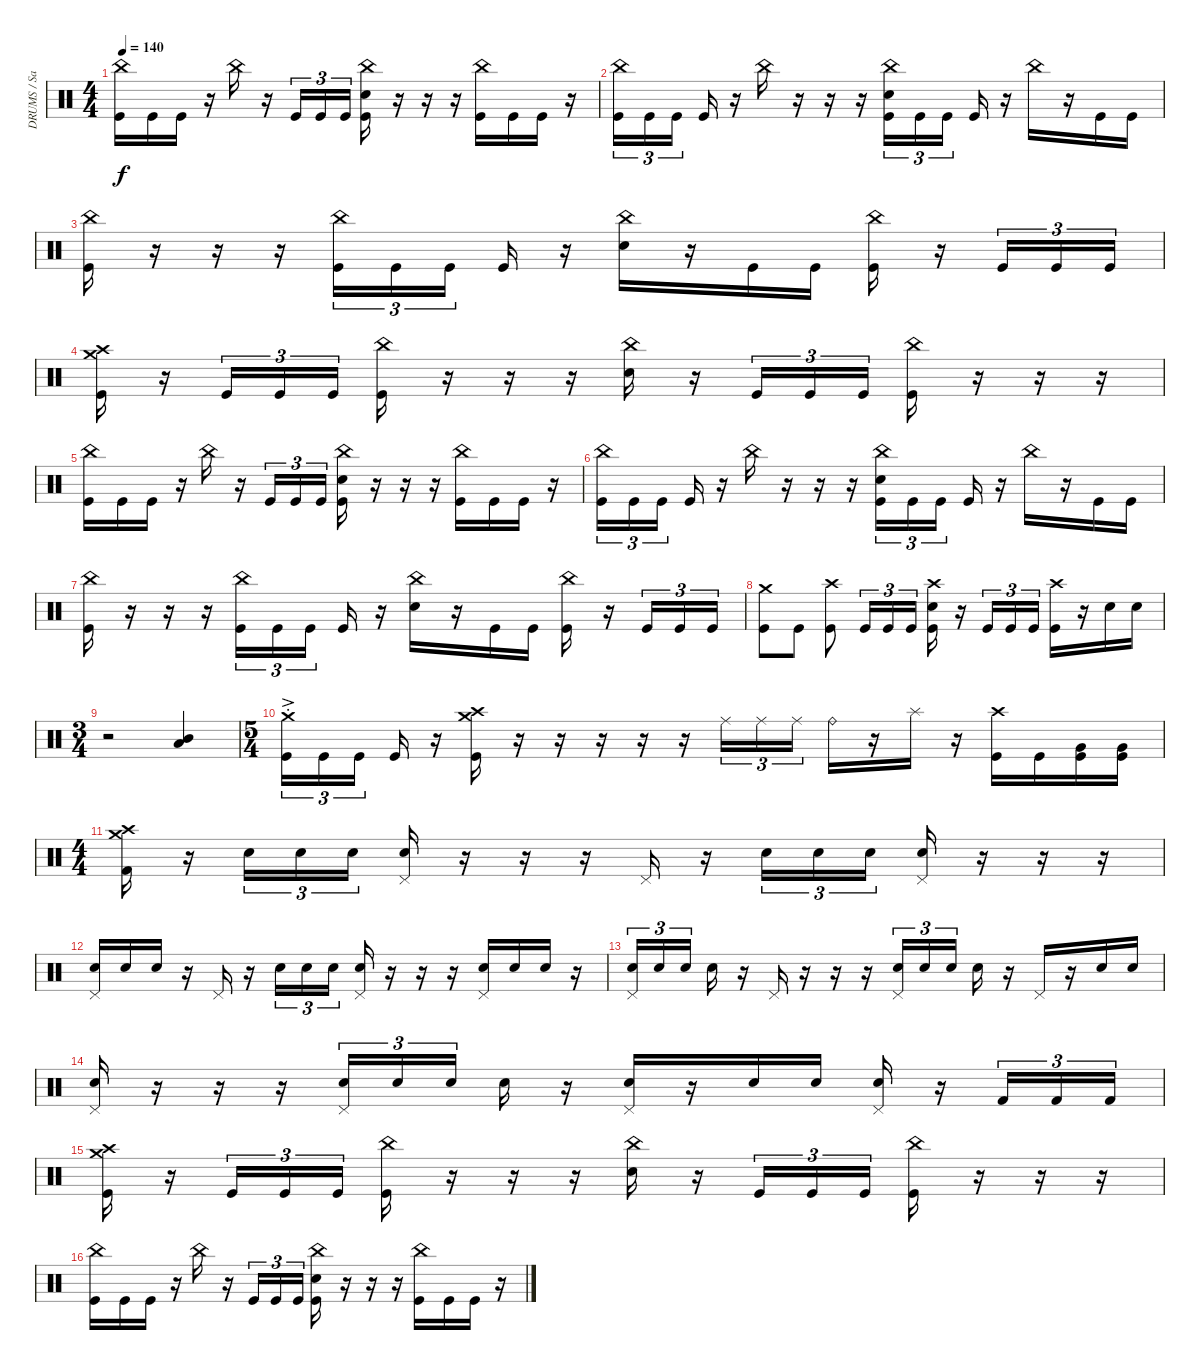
\track ("DRUMS / Sasha" "DRUMS / Sa") {instrument percussion}
\staff {score}
\articulation defaults
\ts (4 4)
\tempo 140
\clef neutral
\ks c
("China (hit)" "Kick (hit)").16{dy f} "Kick (hit)".16 "Kick (hit)".16 r.16 "China (hit)".16 r.16 "Kick (hit)".16{tu (3 2)} "Kick (hit)".16{tu (3 2)} "Kick (hit)".16{tu (3 2)} ("China (hit)" "Kick (hit)" "Snare (hit) 2").16 r.16 r.16 r.16 ("China (hit)" "Kick (hit)").16 "Kick (hit)".16 "Kick (hit)".16 r.16 |
("Kick (hit)" "China (hit)").16{tu (3 2)} "Kick (hit)".16{tu (3 2)} "Kick (hit)".16{tu (3 2) beam splitsecondary} "Kick (hit)".16 r.16 "China (hit)".16 r.16 r.16 r.16 ("Kick (hit)" "China (hit)" "Snare (hit) 2").16{tu (3 2)} "Kick (hit)".16{tu (3 2)} "Kick (hit)".16{tu (3 2) beam splitsecondary} "Kick (hit)".16 r.16 "China (hit)".16 r.16 "Kick (hit)".16 "Kick (hit)".16 |
("Kick (hit)" "China (hit)").16 r.16 r.16 r.16 ("Kick (hit)" "China (hit)").16{tu (3 2)} "Kick (hit)".16{tu (3 2)} "Kick (hit)".16{tu (3 2) beam splitsecondary} "Kick (hit)".16 r.16 ("China (hit)" "Snare (hit) 2").16 r.16 "Kick (hit)".16 "Kick (hit)".16 ("Kick (hit)" "China (hit)").16 r.16 "Kick (hit)".16{tu (3 2)} "Kick (hit)".16{tu (3 2)} "Kick (hit)".16{tu (3 2)} |
("Kick (hit)" "Crash medium (hit)" "Crash high (hit)").16 r.16 "Kick (hit)".16{tu (3 2)} "Kick (hit)".16{tu (3 2)} "Kick (hit)".16{tu (3 2)} ("China (hit)" "Kick (hit)").16 r.16 r.16 r.16 ("China (hit)" "Snare (hit) 2").16 r.16 "Kick (hit)".16{tu (3 2)} "Kick (hit)".16{tu (3 2)} "Kick (hit)".16{tu (3 2)} ("China (hit)" "Kick (hit)").16 r.16 r.16 r.16 |
("China (hit)" "Kick (hit)").16 "Kick (hit)".16 "Kick (hit)".16 r.16 "China (hit)".16 r.16 "Kick (hit)".16{tu (3 2)} "Kick (hit)".16{tu (3 2)} "Kick (hit)".16{tu (3 2)} ("China (hit)" "Kick (hit)" "Snare (hit) 2").16 r.16 r.16 r.16 ("China (hit)" "Kick (hit)").16 "Kick (hit)".16 "Kick (hit)".16 r.16 |
("Kick (hit)" "China (hit)").16{tu (3 2)} "Kick (hit)".16{tu (3 2)} "Kick (hit)".16{tu (3 2) beam splitsecondary} "Kick (hit)".16 r.16 "China (hit)".16 r.16 r.16 r.16 ("Kick (hit)" "China (hit)" "Snare (hit) 2").16{tu (3 2)} "Kick (hit)".16{tu (3 2)} "Kick (hit)".16{tu (3 2) beam splitsecondary} "Kick (hit)".16 r.16 "China (hit)".16 r.16 "Kick (hit)".16 "Kick (hit)".16 |
("Kick (hit)" "China (hit)").16 r.16 r.16 r.16 ("Kick (hit)" "China (hit)").16{tu (3 2)} "Kick (hit)".16{tu (3 2)} "Kick (hit)".16{tu (3 2) beam splitsecondary} "Kick (hit)".16 r.16 ("China (hit)" "Snare (hit) 2").16 r.16 "Kick (hit)".16 "Kick (hit)".16 ("Kick (hit)" "China (hit)").16 r.16 "Kick (hit)".16{tu (3 2)} "Kick (hit)".16{tu (3 2)} "Kick (hit)".16{tu (3 2)} |
("Kick (hit)" "Crash medium (hit)").8 "Kick (hit)".8 ("Kick (hit)" "Crash high (hit)").8 "Kick (hit)".16{tu (3 2)} "Kick (hit)".16{tu (3 2)} "Kick (hit)".16{tu (3 2)} ("Kick (hit)" "Crash high (hit)" "Snare (hit) 2").16 r.16 "Kick (hit)".16{tu (3 2)} "Kick (hit)".16{tu (3 2)} "Kick (hit)".16{tu (3 2)} ("Kick (hit)" "Crash high (hit)").16 r.16 "Snare (hit) 2".16 "Snare (hit) 2".16 |
\ts (3 4)
r.2 ("Low Tom (hit)" "Mid Tom (hit)").4 |
\ts (5 4)
("Kick (hit)" "Crash medium (hit)"{ac st}).16{tu (3 2)} "Kick (hit)".16{tu (3 2)} "Kick (hit)".16{tu (3 2) beam splitsecondary} "Kick (hit)".16 r.16 ("Kick (hit)" "Crash high (hit)" "Crash medium (hit)").16 r.16 r.16 r.16 r.16 r.16 "Ride (middle)".16{tu (3 2)} "Ride (middle)".16{tu (3 2)} "Ride (middle)".16{tu (3 2)} "Ride (bell)".16 r.16 "Splash (hit)".16 r.16 ("Crash high (hit)" "Kick (hit)").16 "Kick (hit)".16 ("Kick (hit)" "Very Low Tom (hit)").16 ("Kick (hit)" "Very Low Tom (hit)").16 |
\ts (4 4)
("Crash medium (hit)" "Crash high (hit)" "Kick (hit) 2").16 r.16 "Electric Snare (hit)".16{tu (3 2)} "Electric Snare (hit)".16{tu (3 2)} "Electric Snare (hit)".16{tu (3 2)} ("Electric Snare (hit)" "Pedal Hi-Hat (hit)").16 r.16 r.16 r.16 "Pedal Hi-Hat (hit)".16 r.16 "Electric Snare (hit)".16{tu (3 2)} "Electric Snare (hit)".16{tu (3 2)} "Electric Snare (hit)".16{tu (3 2)} ("Electric Snare (hit)" "Pedal Hi-Hat (hit)").16 r.16 r.16 r.16 |
("Electric Snare (hit)" "Pedal Hi-Hat (hit)").16 "Electric Snare (hit)".16 "Electric Snare (hit)".16 r.16 "Pedal Hi-Hat (hit)".16 r.16 "Electric Snare (hit)".16{tu (3 2)} "Electric Snare (hit)".16{tu (3 2)} "Electric Snare (hit)".16{tu (3 2)} ("Electric Snare (hit)" "Pedal Hi-Hat (hit)").16 r.16 r.16 r.16 ("Electric Snare (hit)" "Pedal Hi-Hat (hit)").16 "Electric Snare (hit)".16 "Electric Snare (hit)".16 r.16 |
("Electric Snare (hit)" "Pedal Hi-Hat (hit)").16{tu (3 2)} "Electric Snare (hit)".16{tu (3 2)} "Electric Snare (hit)".16{tu (3 2) beam splitsecondary} "Electric Snare (hit)".16 r.16 "Pedal Hi-Hat (hit)".16 r.16 r.16 r.16 ("Electric Snare (hit)" "Pedal Hi-Hat (hit)").16{tu (3 2)} "Electric Snare (hit)".16{tu (3 2)} "Electric Snare (hit)".16{tu (3 2) beam splitsecondary} "Electric Snare (hit)".16 r.16 "Pedal Hi-Hat (hit)".16 r.16 "Electric Snare (hit)".16 "Electric Snare (hit)".16 |
("Electric Snare (hit)" "Pedal Hi-Hat (hit)").16 r.16 r.16 r.16 ("Electric Snare (hit)" "Pedal Hi-Hat (hit)").16{tu (3 2)} "Electric Snare (hit)".16{tu (3 2)} "Electric Snare (hit)".16{tu (3 2) beam splitsecondary} "Electric Snare (hit)".16 r.16 ("Electric Snare (hit)" "Pedal Hi-Hat (hit)").16 r.16 "Electric Snare (hit)".16 "Electric Snare (hit)".16 ("Electric Snare (hit)" "Pedal Hi-Hat (hit)").16 r.16 "Kick (hit) 2".16{tu (3 2)} "Kick (hit) 2".16{tu (3 2)} "Kick (hit) 2".16{tu (3 2)} |
("Kick (hit)" "Crash medium (hit)" "Crash high (hit)").16 r.16 "Kick (hit)".16{tu (3 2)} "Kick (hit)".16{tu (3 2)} "Kick (hit)".16{tu (3 2)} ("China (hit)" "Kick (hit)").16 r.16 r.16 r.16 ("China (hit)" "Snare (hit) 2").16 r.16 "Kick (hit)".16{tu (3 2)} "Kick (hit)".16{tu (3 2)} "Kick (hit)".16{tu (3 2)} ("China (hit)" "Kick (hit)").16 r.16 r.16 r.16 |
("China (hit)" "Kick (hit)").16 "Kick (hit)".16 "Kick (hit)".16 r.16 "China (hit)".16 r.16 "Kick (hit)".16{tu (3 2)} "Kick (hit)".16{tu (3 2)} "Kick (hit)".16{tu (3 2)} ("China (hit)" "Kick (hit)" "Snare (hit) 2").16 r.16 r.16 r.16 ("China (hit)" "Kick (hit)").16 "Kick (hit)".16 "Kick (hit)".16 r.16
